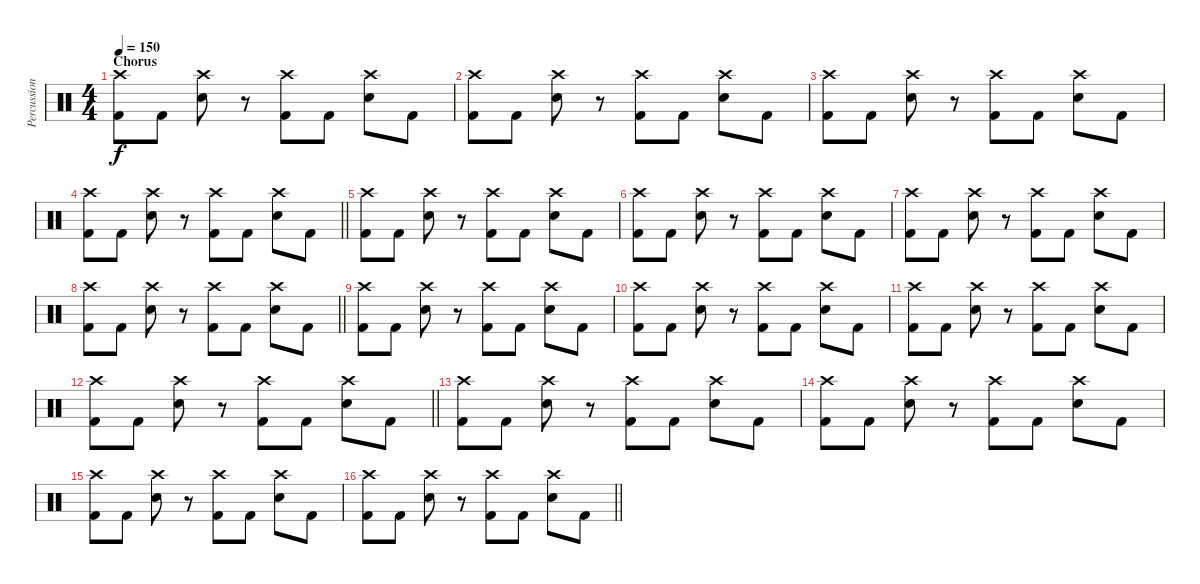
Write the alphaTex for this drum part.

\track ("Percussion" "Percussion") {instrument percussion}
\staff {score}
\articulation defaults
\ts (4 4)
\section ("" "Chorus")
\tempo 150
\clef neutral
\ks c
("Crash high (hit)" "Kick (hit) 2").8{dy f} "Kick (hit) 2".8 ("Crash high (hit)" "Electric Snare (hit)").8 r.8 ("Crash high (hit)" "Kick (hit) 2").8 "Kick (hit) 2".8 ("Crash high (hit)" "Electric Snare (hit)").8 "Kick (hit) 2".8 |
("Crash high (hit)" "Kick (hit) 2").8 "Kick (hit) 2".8 ("Crash high (hit)" "Electric Snare (hit)").8 r.8 ("Crash high (hit)" "Kick (hit) 2").8 "Kick (hit) 2".8 ("Crash high (hit)" "Electric Snare (hit)").8 "Kick (hit) 2".8 |
("Crash high (hit)" "Kick (hit) 2").8 "Kick (hit) 2".8 ("Crash high (hit)" "Electric Snare (hit)").8 r.8 ("Crash high (hit)" "Kick (hit) 2").8 "Kick (hit) 2".8 ("Crash high (hit)" "Electric Snare (hit)").8 "Kick (hit) 2".8 |
\barLineRight lightlight
("Crash high (hit)" "Kick (hit) 2").8 "Kick (hit) 2".8 ("Crash high (hit)" "Electric Snare (hit)").8 r.8 ("Crash high (hit)" "Kick (hit) 2").8 "Kick (hit) 2".8 ("Crash high (hit)" "Electric Snare (hit)").8 "Kick (hit) 2".8 |
("Crash high (hit)" "Kick (hit) 2").8 "Kick (hit) 2".8 ("Crash high (hit)" "Electric Snare (hit)").8 r.8 ("Crash high (hit)" "Kick (hit) 2").8 "Kick (hit) 2".8 ("Crash high (hit)" "Electric Snare (hit)").8 "Kick (hit) 2".8 |
("Crash high (hit)" "Kick (hit) 2").8 "Kick (hit) 2".8 ("Crash high (hit)" "Electric Snare (hit)").8 r.8 ("Crash high (hit)" "Kick (hit) 2").8 "Kick (hit) 2".8 ("Crash high (hit)" "Electric Snare (hit)").8 "Kick (hit) 2".8 |
("Crash high (hit)" "Kick (hit) 2").8 "Kick (hit) 2".8 ("Crash high (hit)" "Electric Snare (hit)").8 r.8 ("Crash high (hit)" "Kick (hit) 2").8 "Kick (hit) 2".8 ("Crash high (hit)" "Electric Snare (hit)").8 "Kick (hit) 2".8 |
\barLineRight lightlight
("Crash high (hit)" "Kick (hit) 2").8 "Kick (hit) 2".8 ("Crash high (hit)" "Electric Snare (hit)").8 r.8 ("Crash high (hit)" "Kick (hit) 2").8 "Kick (hit) 2".8 ("Crash high (hit)" "Electric Snare (hit)").8 "Kick (hit) 2".8 |
("Crash high (hit)" "Kick (hit) 2").8 "Kick (hit) 2".8 ("Crash high (hit)" "Electric Snare (hit)").8 r.8 ("Crash high (hit)" "Kick (hit) 2").8 "Kick (hit) 2".8 ("Crash high (hit)" "Electric Snare (hit)").8 "Kick (hit) 2".8 |
("Crash high (hit)" "Kick (hit) 2").8 "Kick (hit) 2".8 ("Crash high (hit)" "Electric Snare (hit)").8 r.8 ("Crash high (hit)" "Kick (hit) 2").8 "Kick (hit) 2".8 ("Crash high (hit)" "Electric Snare (hit)").8 "Kick (hit) 2".8 |
("Crash high (hit)" "Kick (hit) 2").8 "Kick (hit) 2".8 ("Crash high (hit)" "Electric Snare (hit)").8 r.8 ("Crash high (hit)" "Kick (hit) 2").8 "Kick (hit) 2".8 ("Crash high (hit)" "Electric Snare (hit)").8 "Kick (hit) 2".8 |
\barLineRight lightlight
("Crash high (hit)" "Kick (hit) 2").8 "Kick (hit) 2".8 ("Crash high (hit)" "Electric Snare (hit)").8 r.8 ("Crash high (hit)" "Kick (hit) 2").8 "Kick (hit) 2".8 ("Crash high (hit)" "Electric Snare (hit)").8 "Kick (hit) 2".8 |
("Crash high (hit)" "Kick (hit) 2").8 "Kick (hit) 2".8 ("Crash high (hit)" "Electric Snare (hit)").8 r.8 ("Crash high (hit)" "Kick (hit) 2").8 "Kick (hit) 2".8 ("Crash high (hit)" "Electric Snare (hit)").8 "Kick (hit) 2".8 |
("Crash high (hit)" "Kick (hit) 2").8 "Kick (hit) 2".8 ("Crash high (hit)" "Electric Snare (hit)").8 r.8 ("Crash high (hit)" "Kick (hit) 2").8 "Kick (hit) 2".8 ("Crash high (hit)" "Electric Snare (hit)").8 "Kick (hit) 2".8 |
("Crash high (hit)" "Kick (hit) 2").8 "Kick (hit) 2".8 ("Crash high (hit)" "Electric Snare (hit)").8 r.8 ("Crash high (hit)" "Kick (hit) 2").8 "Kick (hit) 2".8 ("Crash high (hit)" "Electric Snare (hit)").8 "Kick (hit) 2".8 |
\barLineRight lightlight
("Crash high (hit)" "Kick (hit) 2").8 "Kick (hit) 2".8 ("Crash high (hit)" "Electric Snare (hit)").8 r.8 ("Crash high (hit)" "Kick (hit) 2").8 "Kick (hit) 2".8 ("Crash high (hit)" "Electric Snare (hit)").8 "Kick (hit) 2".8
